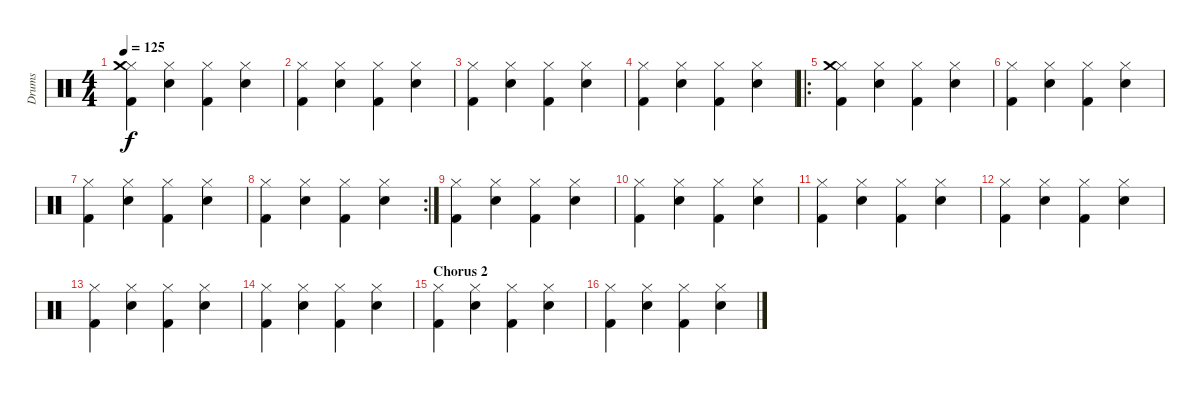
\track ("Drums" "Drums") {instrument percussion}
\staff {score}
\articulation defaults
\ts (4 4)
\tempo 125
\clef neutral
\ks c
("Hi-Hat (closed)" "Crash medium (hit)" "Kick (hit) 2").4{dy f} ("Hi-Hat (closed)" "Electric Snare (hit)").4 ("Hi-Hat (closed)" "Kick (hit) 2").4 ("Hi-Hat (closed)" "Electric Snare (hit)").4 |
("Hi-Hat (closed)" "Kick (hit) 2").4 ("Hi-Hat (closed)" "Electric Snare (hit)").4 ("Hi-Hat (closed)" "Kick (hit) 2").4 ("Hi-Hat (closed)" "Electric Snare (hit)").4 |
("Hi-Hat (closed)" "Kick (hit) 2").4 ("Hi-Hat (closed)" "Electric Snare (hit)").4 ("Hi-Hat (closed)" "Kick (hit) 2").4 ("Hi-Hat (closed)" "Electric Snare (hit)").4 |
("Hi-Hat (closed)" "Kick (hit) 2").4 ("Hi-Hat (closed)" "Electric Snare (hit)").4 ("Hi-Hat (closed)" "Kick (hit) 2").4 ("Hi-Hat (closed)" "Electric Snare (hit)").4 |
\ro
("Hi-Hat (closed)" "Crash medium (hit)" "Kick (hit) 2").4 ("Hi-Hat (closed)" "Electric Snare (hit)").4 ("Hi-Hat (closed)" "Kick (hit) 2").4 ("Hi-Hat (closed)" "Electric Snare (hit)").4 |
("Hi-Hat (closed)" "Kick (hit) 2").4 ("Hi-Hat (closed)" "Electric Snare (hit)").4 ("Hi-Hat (closed)" "Kick (hit) 2").4 ("Hi-Hat (closed)" "Electric Snare (hit)").4 |
("Hi-Hat (closed)" "Kick (hit) 2").4 ("Hi-Hat (closed)" "Electric Snare (hit)").4 ("Hi-Hat (closed)" "Kick (hit) 2").4 ("Hi-Hat (closed)" "Electric Snare (hit)").4 |
\rc 2
("Hi-Hat (closed)" "Kick (hit) 2").4 ("Hi-Hat (closed)" "Electric Snare (hit)").4 ("Hi-Hat (closed)" "Kick (hit) 2").4 ("Hi-Hat (closed)" "Electric Snare (hit)").4 |
("Hi-Hat (closed)" "Kick (hit) 2").4 ("Hi-Hat (closed)" "Electric Snare (hit)").4 ("Hi-Hat (closed)" "Kick (hit) 2").4 ("Hi-Hat (closed)" "Electric Snare (hit)").4 |
("Hi-Hat (closed)" "Kick (hit) 2").4 ("Hi-Hat (closed)" "Electric Snare (hit)").4 ("Hi-Hat (closed)" "Kick (hit) 2").4 ("Hi-Hat (closed)" "Electric Snare (hit)").4 |
("Hi-Hat (closed)" "Kick (hit) 2").4 ("Hi-Hat (closed)" "Electric Snare (hit)").4 ("Hi-Hat (closed)" "Kick (hit) 2").4 ("Hi-Hat (closed)" "Electric Snare (hit)").4 |
("Hi-Hat (closed)" "Kick (hit) 2").4 ("Hi-Hat (closed)" "Electric Snare (hit)").4 ("Hi-Hat (closed)" "Kick (hit) 2").4 ("Hi-Hat (closed)" "Electric Snare (hit)").4 |
("Hi-Hat (closed)" "Kick (hit) 2").4 ("Hi-Hat (closed)" "Electric Snare (hit)").4 ("Hi-Hat (closed)" "Kick (hit) 2").4 ("Hi-Hat (closed)" "Electric Snare (hit)").4 |
("Hi-Hat (closed)" "Kick (hit) 2").4 ("Hi-Hat (closed)" "Electric Snare (hit)").4 ("Hi-Hat (closed)" "Kick (hit) 2").4 ("Hi-Hat (closed)" "Electric Snare (hit)").4 |
\section ("" "Chorus 2")
("Hi-Hat (closed)" "Kick (hit) 2").4 ("Hi-Hat (closed)" "Electric Snare (hit)").4 ("Hi-Hat (closed)" "Kick (hit) 2").4 ("Hi-Hat (closed)" "Electric Snare (hit)").4 |
("Hi-Hat (closed)" "Kick (hit) 2").4 ("Hi-Hat (closed)" "Electric Snare (hit)").4 ("Hi-Hat (closed)" "Kick (hit) 2").4 ("Hi-Hat (closed)" "Electric Snare (hit)").4
